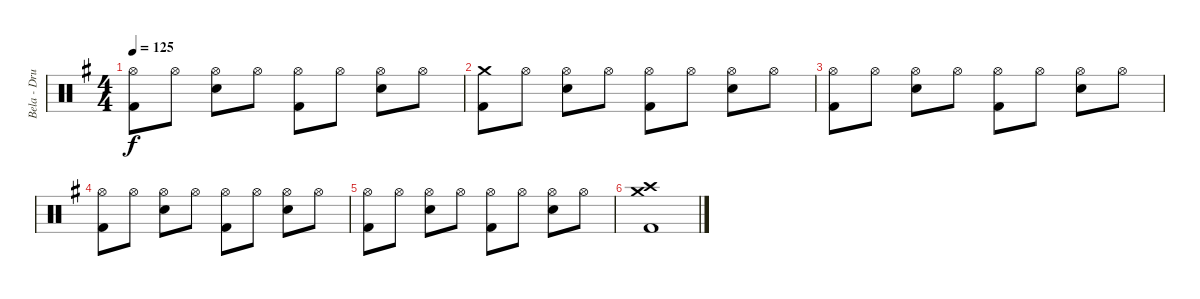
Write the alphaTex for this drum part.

\track ("Bela - Drums" "Bela - Dru") {instrument percussion}
\staff {score}
\articulation defaults
\ts (4 4)
\tempo 125
\clef neutral
\ks g
("Hi-Hat (open)" "Kick (hit) 2").8{dy f} "Hi-Hat (open)".8 ("Hi-Hat (open)" "Snare (hit) 2").8 "Hi-Hat (open)".8 ("Hi-Hat (open)" "Kick (hit) 2").8 "Hi-Hat (open)".8 ("Hi-Hat (open)" "Snare (hit) 2").8 "Hi-Hat (open)".8 |
("Crash medium (hit)" "Kick (hit) 2").8 "Hi-Hat (open)".8 ("Hi-Hat (open)" "Snare (hit) 2").8 "Hi-Hat (open)".8 ("Hi-Hat (open)" "Kick (hit) 2").8 "Hi-Hat (open)".8 ("Hi-Hat (open)" "Snare (hit) 2").8 "Hi-Hat (open)".8 |
("Hi-Hat (open)" "Kick (hit) 2").8 "Hi-Hat (open)".8 ("Hi-Hat (open)" "Snare (hit) 2").8 "Hi-Hat (open)".8 ("Hi-Hat (open)" "Kick (hit) 2").8 "Hi-Hat (open)".8 ("Hi-Hat (open)" "Snare (hit) 2").8 "Hi-Hat (open)".8 |
("Hi-Hat (open)" "Kick (hit) 2").8 "Hi-Hat (open)".8 ("Hi-Hat (open)" "Snare (hit) 2").8 "Hi-Hat (open)".8 ("Hi-Hat (open)" "Kick (hit) 2").8 "Hi-Hat (open)".8 ("Hi-Hat (open)" "Snare (hit) 2").8 "Hi-Hat (open)".8 |
("Hi-Hat (open)" "Kick (hit) 2").8 "Hi-Hat (open)".8 ("Hi-Hat (open)" "Snare (hit) 2").8 "Hi-Hat (open)".8 ("Hi-Hat (open)" "Kick (hit) 2").8 "Hi-Hat (open)".8 ("Hi-Hat (open)" "Snare (hit) 2").8 "Hi-Hat (open)".8 |
("Crash high (hit)" "Crash medium (hit)" "Kick (hit) 2").1
